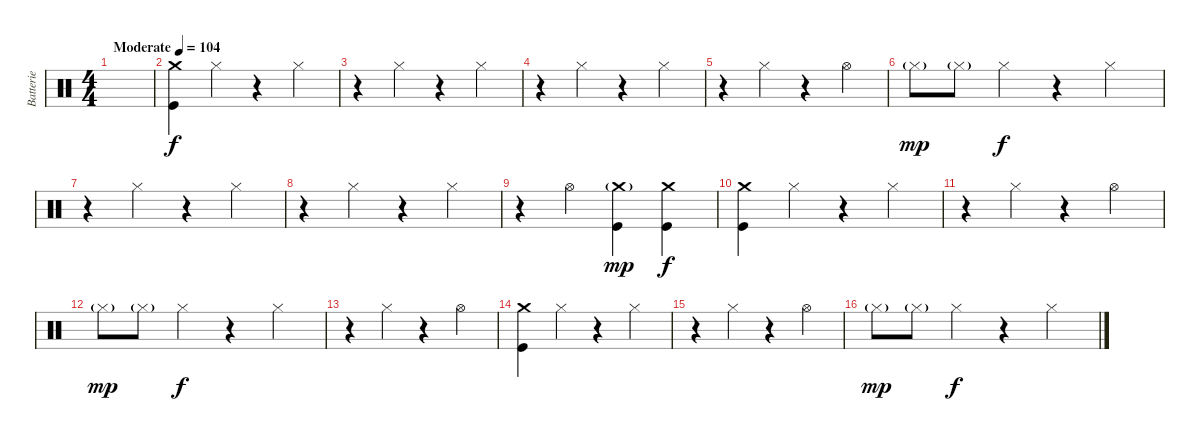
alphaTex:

\track ("Batterie" "Batterie") {instrument percussion}
\staff {score}
\articulation defaults
\ts (4 4)
\tempo (104 "Moderate")
\clef neutral
\ks c
|
("Crash medium (hit)" "Kick (hit)").4 "Hi-Hat (closed)".4 r.4 "Hi-Hat (closed)".4 |
r.4 "Hi-Hat (closed)".4 r.4 "Hi-Hat (closed)".4 |
r.4 "Hi-Hat (closed)".4 r.4 "Hi-Hat (closed)".4 |
r.4 "Hi-Hat (closed)".4 r.4 "Hi-Hat (open)".4 |
"Hi-Hat (closed)"{g}.8{dy mp} "Hi-Hat (closed)"{g}.8 "Hi-Hat (closed)".4{dy f} r.4 "Hi-Hat (closed)".4 |
r.4 "Hi-Hat (closed)".4 r.4 "Hi-Hat (closed)".4 |
r.4 "Hi-Hat (closed)".4 r.4 "Hi-Hat (closed)".4 |
r.4 "Hi-Hat (open)".4 ("Crash medium (hit)"{g} "Kick (hit)").4{dy mp} ("Crash medium (hit)" "Kick (hit)").4{dy f} |
("Crash medium (hit)" "Kick (hit)").4 "Hi-Hat (closed)".4 r.4 "Hi-Hat (closed)".4 |
r.4 "Hi-Hat (closed)".4 r.4 "Hi-Hat (open)".4 |
"Hi-Hat (closed)"{g}.8{dy mp} "Hi-Hat (closed)"{g}.8 "Hi-Hat (closed)".4{dy f} r.4 "Hi-Hat (closed)".4 |
r.4 "Hi-Hat (closed)".4 r.4 "Hi-Hat (open)".4 |
("Crash medium (hit)" "Kick (hit)").4 "Hi-Hat (closed)".4 r.4 "Hi-Hat (closed)".4 |
r.4 "Hi-Hat (closed)".4 r.4 "Hi-Hat (open)".4 |
"Hi-Hat (closed)"{g}.8{dy mp} "Hi-Hat (closed)"{g}.8 "Hi-Hat (closed)".4{dy f} r.4 "Hi-Hat (closed)".4
